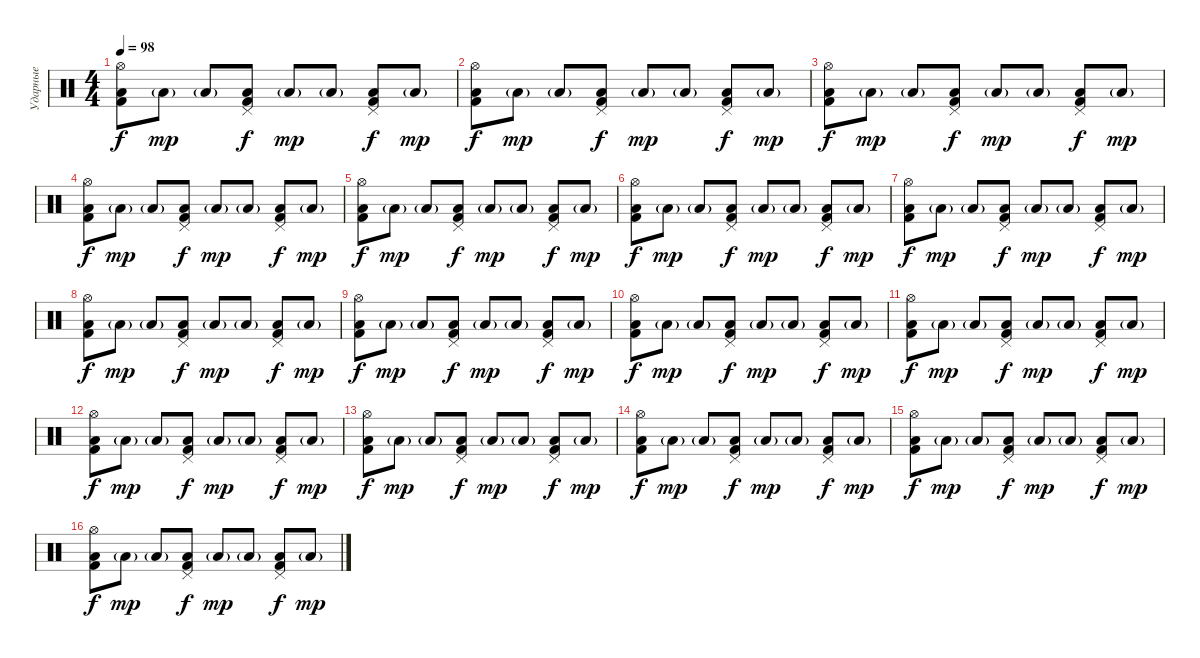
\track ("Ударные" "Ударные") {instrument percussion}
\staff {score}
\articulation defaults
\ts (4 4)
\tempo 98
\clef neutral
\ks c
("Hi-Hat (open)" "Kick (hit) 2" "Low Tom (hit)").8{dy f} "Low Tom (hit)"{g}.8{dy mp} "Low Tom (hit)"{g}.8 ("Pedal Hi-Hat (hit)" "Kick (hit) 2" "Low Tom (hit)").8{dy f} "Low Tom (hit)"{g}.8{dy mp} "Low Tom (hit)"{g}.8 ("Pedal Hi-Hat (hit)" "Kick (hit) 2" "Low Tom (hit)").8{dy f} "Low Tom (hit)"{g}.8{dy mp} |
("Hi-Hat (open)" "Kick (hit) 2" "Low Tom (hit)").8{dy f} "Low Tom (hit)"{g}.8{dy mp} "Low Tom (hit)"{g}.8 ("Pedal Hi-Hat (hit)" "Kick (hit) 2" "Low Tom (hit)").8{dy f} "Low Tom (hit)"{g}.8{dy mp} "Low Tom (hit)"{g}.8 ("Pedal Hi-Hat (hit)" "Kick (hit) 2" "Low Tom (hit)").8{dy f} "Low Tom (hit)"{g}.8{dy mp} |
("Hi-Hat (open)" "Kick (hit) 2" "Low Tom (hit)").8{dy f} "Low Tom (hit)"{g}.8{dy mp} "Low Tom (hit)"{g}.8 ("Pedal Hi-Hat (hit)" "Kick (hit) 2" "Low Tom (hit)").8{dy f} "Low Tom (hit)"{g}.8{dy mp} "Low Tom (hit)"{g}.8 ("Pedal Hi-Hat (hit)" "Kick (hit) 2" "Low Tom (hit)").8{dy f} "Low Tom (hit)"{g}.8{dy mp} |
("Hi-Hat (open)" "Kick (hit) 2" "Low Tom (hit)").8{dy f} "Low Tom (hit)"{g}.8{dy mp} "Low Tom (hit)"{g}.8 ("Pedal Hi-Hat (hit)" "Kick (hit) 2" "Low Tom (hit)").8{dy f} "Low Tom (hit)"{g}.8{dy mp} "Low Tom (hit)"{g}.8 ("Pedal Hi-Hat (hit)" "Kick (hit) 2" "Low Tom (hit)").8{dy f} "Low Tom (hit)"{g}.8{dy mp} |
("Hi-Hat (open)" "Kick (hit) 2" "Low Tom (hit)").8{dy f} "Low Tom (hit)"{g}.8{dy mp} "Low Tom (hit)"{g}.8 ("Pedal Hi-Hat (hit)" "Kick (hit) 2" "Low Tom (hit)").8{dy f} "Low Tom (hit)"{g}.8{dy mp} "Low Tom (hit)"{g}.8 ("Pedal Hi-Hat (hit)" "Kick (hit) 2" "Low Tom (hit)").8{dy f} "Low Tom (hit)"{g}.8{dy mp} |
("Hi-Hat (open)" "Kick (hit) 2" "Low Tom (hit)").8{dy f} "Low Tom (hit)"{g}.8{dy mp} "Low Tom (hit)"{g}.8 ("Pedal Hi-Hat (hit)" "Kick (hit) 2" "Low Tom (hit)").8{dy f} "Low Tom (hit)"{g}.8{dy mp} "Low Tom (hit)"{g}.8 ("Pedal Hi-Hat (hit)" "Kick (hit) 2" "Low Tom (hit)").8{dy f} "Low Tom (hit)"{g}.8{dy mp} |
("Hi-Hat (open)" "Kick (hit) 2" "Low Tom (hit)").8{dy f} "Low Tom (hit)"{g}.8{dy mp} "Low Tom (hit)"{g}.8 ("Pedal Hi-Hat (hit)" "Kick (hit) 2" "Low Tom (hit)").8{dy f} "Low Tom (hit)"{g}.8{dy mp} "Low Tom (hit)"{g}.8 ("Pedal Hi-Hat (hit)" "Kick (hit) 2" "Low Tom (hit)").8{dy f} "Low Tom (hit)"{g}.8{dy mp} |
("Hi-Hat (open)" "Kick (hit) 2" "Low Tom (hit)").8{dy f} "Low Tom (hit)"{g}.8{dy mp} "Low Tom (hit)"{g}.8 ("Pedal Hi-Hat (hit)" "Kick (hit) 2" "Low Tom (hit)").8{dy f} "Low Tom (hit)"{g}.8{dy mp} "Low Tom (hit)"{g}.8 ("Pedal Hi-Hat (hit)" "Kick (hit) 2" "Low Tom (hit)").8{dy f} "Low Tom (hit)"{g}.8{dy mp} |
("Hi-Hat (open)" "Kick (hit) 2" "Low Tom (hit)").8{dy f} "Low Tom (hit)"{g}.8{dy mp} "Low Tom (hit)"{g}.8 ("Pedal Hi-Hat (hit)" "Kick (hit) 2" "Low Tom (hit)").8{dy f} "Low Tom (hit)"{g}.8{dy mp} "Low Tom (hit)"{g}.8 ("Pedal Hi-Hat (hit)" "Kick (hit) 2" "Low Tom (hit)").8{dy f} "Low Tom (hit)"{g}.8{dy mp} |
("Hi-Hat (open)" "Kick (hit) 2" "Low Tom (hit)").8{dy f} "Low Tom (hit)"{g}.8{dy mp} "Low Tom (hit)"{g}.8 ("Pedal Hi-Hat (hit)" "Kick (hit) 2" "Low Tom (hit)").8{dy f} "Low Tom (hit)"{g}.8{dy mp} "Low Tom (hit)"{g}.8 ("Pedal Hi-Hat (hit)" "Kick (hit) 2" "Low Tom (hit)").8{dy f} "Low Tom (hit)"{g}.8{dy mp} |
("Hi-Hat (open)" "Kick (hit) 2" "Low Tom (hit)").8{dy f} "Low Tom (hit)"{g}.8{dy mp} "Low Tom (hit)"{g}.8 ("Pedal Hi-Hat (hit)" "Kick (hit) 2" "Low Tom (hit)").8{dy f} "Low Tom (hit)"{g}.8{dy mp} "Low Tom (hit)"{g}.8 ("Pedal Hi-Hat (hit)" "Kick (hit) 2" "Low Tom (hit)").8{dy f} "Low Tom (hit)"{g}.8{dy mp} |
("Hi-Hat (open)" "Kick (hit) 2" "Low Tom (hit)").8{dy f} "Low Tom (hit)"{g}.8{dy mp} "Low Tom (hit)"{g}.8 ("Pedal Hi-Hat (hit)" "Kick (hit) 2" "Low Tom (hit)").8{dy f} "Low Tom (hit)"{g}.8{dy mp} "Low Tom (hit)"{g}.8 ("Pedal Hi-Hat (hit)" "Kick (hit) 2" "Low Tom (hit)").8{dy f} "Low Tom (hit)"{g}.8{dy mp} |
("Hi-Hat (open)" "Kick (hit) 2" "Low Tom (hit)").8{dy f} "Low Tom (hit)"{g}.8{dy mp} "Low Tom (hit)"{g}.8 ("Pedal Hi-Hat (hit)" "Kick (hit) 2" "Low Tom (hit)").8{dy f} "Low Tom (hit)"{g}.8{dy mp} "Low Tom (hit)"{g}.8 ("Pedal Hi-Hat (hit)" "Kick (hit) 2" "Low Tom (hit)").8{dy f} "Low Tom (hit)"{g}.8{dy mp} |
("Hi-Hat (open)" "Kick (hit) 2" "Low Tom (hit)").8{dy f} "Low Tom (hit)"{g}.8{dy mp} "Low Tom (hit)"{g}.8 ("Pedal Hi-Hat (hit)" "Kick (hit) 2" "Low Tom (hit)").8{dy f} "Low Tom (hit)"{g}.8{dy mp} "Low Tom (hit)"{g}.8 ("Pedal Hi-Hat (hit)" "Kick (hit) 2" "Low Tom (hit)").8{dy f} "Low Tom (hit)"{g}.8{dy mp} |
("Hi-Hat (open)" "Kick (hit) 2" "Low Tom (hit)").8{dy f} "Low Tom (hit)"{g}.8{dy mp} "Low Tom (hit)"{g}.8 ("Pedal Hi-Hat (hit)" "Kick (hit) 2" "Low Tom (hit)").8{dy f} "Low Tom (hit)"{g}.8{dy mp} "Low Tom (hit)"{g}.8 ("Pedal Hi-Hat (hit)" "Kick (hit) 2" "Low Tom (hit)").8{dy f} "Low Tom (hit)"{g}.8{dy mp} |
("Hi-Hat (open)" "Kick (hit) 2" "Low Tom (hit)").8{dy f} "Low Tom (hit)"{g}.8{dy mp} "Low Tom (hit)"{g}.8 ("Pedal Hi-Hat (hit)" "Kick (hit) 2" "Low Tom (hit)").8{dy f} "Low Tom (hit)"{g}.8{dy mp} "Low Tom (hit)"{g}.8 ("Pedal Hi-Hat (hit)" "Kick (hit) 2" "Low Tom (hit)").8{dy f} "Low Tom (hit)"{g}.8{dy mp}
